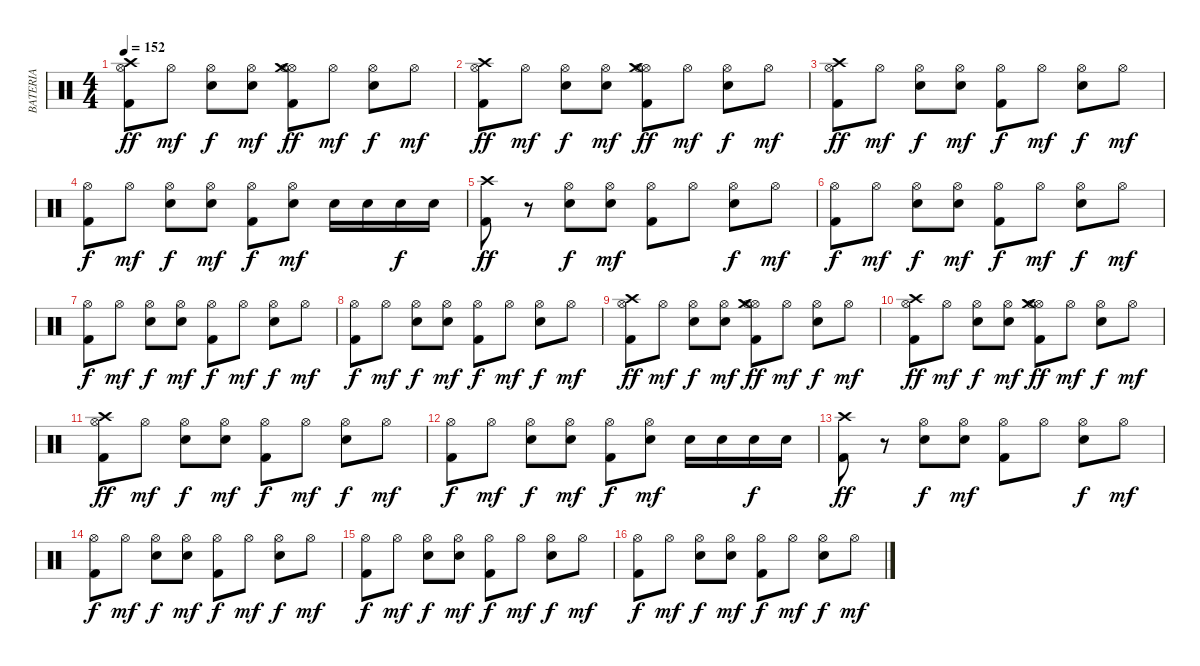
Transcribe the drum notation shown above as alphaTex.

\track ("BATERIA" "BATERIA") {instrument percussion}
\staff {score}
\articulation defaults
\ts (4 4)
\tempo 152
\clef neutral
\ks c
("Kick (hit) 2" "Crash high (hit)" "Hi-Hat (open)").8{dy ff} "Hi-Hat (open)".8{dy mf} ("Snare (hit) 2" "Hi-Hat (open)").8{dy f} ("Snare (hit) 2" "Hi-Hat (open)").8{dy mf} ("Kick (hit) 2" "Hi-Hat (open)" "Hi-Hat (open)" "Crash medium (hit)").8{dy ff} "Hi-Hat (open)".8{dy mf} ("Snare (hit) 2" "Hi-Hat (open)").8{dy f} "Hi-Hat (open)".8{dy mf} |
("Kick (hit) 2" "Crash high (hit)" "Hi-Hat (open)").8{dy ff} "Hi-Hat (open)".8{dy mf} ("Snare (hit) 2" "Hi-Hat (open)").8{dy f} ("Snare (hit) 2" "Hi-Hat (open)").8{dy mf} ("Kick (hit) 2" "Hi-Hat (open)" "Hi-Hat (open)" "Crash medium (hit)").8{dy ff} "Hi-Hat (open)".8{dy mf} ("Snare (hit) 2" "Hi-Hat (open)").8{dy f} "Hi-Hat (open)".8{dy mf} |
("Kick (hit) 2" "Crash high (hit)" "Hi-Hat (open)").8{dy ff} "Hi-Hat (open)".8{dy mf} ("Snare (hit) 2" "Hi-Hat (open)").8{dy f} ("Snare (hit) 2" "Hi-Hat (open)").8{dy mf} ("Kick (hit) 2" "Hi-Hat (open)").8{dy f} "Hi-Hat (open)".8{dy mf} ("Snare (hit) 2" "Hi-Hat (open)").8{dy f} "Hi-Hat (open)".8{dy mf} |
("Hi-Hat (open)" "Kick (hit) 2").8{dy f} "Hi-Hat (open)".8{dy mf} ("Snare (hit) 2" "Hi-Hat (open)").8{dy f} ("Snare (hit) 2" "Hi-Hat (open)").8{dy mf} ("Kick (hit) 2" "Hi-Hat (open)").8{dy f} ("Snare (hit) 2" "Hi-Hat (open)").8{dy mf} "Snare (hit) 2".16 "Snare (hit) 2".16 "Snare (hit) 2".16{dy f} "Snare (hit) 2".16 |
("Kick (hit) 2" "Crash high (hit)").8{dy ff} r.8 ("Snare (hit) 2" "Hi-Hat (open)").8{dy f} ("Snare (hit) 2" "Hi-Hat (open)").8{dy mf} ("Kick (hit) 2" "Hi-Hat (open)").8 "Hi-Hat (open)".8 ("Snare (hit) 2" "Hi-Hat (open)").8{dy f} "Hi-Hat (open)".8{dy mf} |
("Hi-Hat (open)" "Kick (hit) 2").8{dy f} "Hi-Hat (open)".8{dy mf} ("Hi-Hat (open)" "Snare (hit) 2").8{dy f} ("Hi-Hat (open)" "Snare (hit) 2").8{dy mf} ("Hi-Hat (open)" "Kick (hit) 2").8{dy f} "Hi-Hat (open)".8{dy mf} ("Hi-Hat (open)" "Snare (hit) 2").8{dy f} "Hi-Hat (open)".8{dy mf} |
("Hi-Hat (open)" "Kick (hit) 2").8{dy f} "Hi-Hat (open)".8{dy mf} ("Hi-Hat (open)" "Snare (hit) 2").8{dy f} ("Hi-Hat (open)" "Snare (hit) 2").8{dy mf} ("Hi-Hat (open)" "Kick (hit) 2").8{dy f} "Hi-Hat (open)".8{dy mf} ("Hi-Hat (open)" "Snare (hit) 2").8{dy f} "Hi-Hat (open)".8{dy mf} |
("Hi-Hat (open)" "Kick (hit) 2").8{dy f} "Hi-Hat (open)".8{dy mf} ("Snare (hit) 2" "Hi-Hat (open)").8{dy f} ("Snare (hit) 2" "Hi-Hat (open)").8{dy mf} ("Hi-Hat (open)" "Kick (hit) 2").8{dy f} "Hi-Hat (open)".8{dy mf} ("Hi-Hat (open)" "Snare (hit) 2").8{dy f} "Hi-Hat (open)".8{dy mf} |
("Kick (hit) 2" "Crash high (hit)" "Hi-Hat (open)").8{dy ff} "Hi-Hat (open)".8{dy mf} ("Snare (hit) 2" "Hi-Hat (open)").8{dy f} ("Snare (hit) 2" "Hi-Hat (open)").8{dy mf} ("Kick (hit) 2" "Hi-Hat (open)" "Hi-Hat (open)" "Crash medium (hit)").8{dy ff} "Hi-Hat (open)".8{dy mf} ("Snare (hit) 2" "Hi-Hat (open)").8{dy f} "Hi-Hat (open)".8{dy mf} |
("Kick (hit) 2" "Crash high (hit)" "Hi-Hat (open)").8{dy ff} "Hi-Hat (open)".8{dy mf} ("Snare (hit) 2" "Hi-Hat (open)").8{dy f} ("Snare (hit) 2" "Hi-Hat (open)").8{dy mf} ("Kick (hit) 2" "Hi-Hat (open)" "Hi-Hat (open)" "Crash medium (hit)").8{dy ff} "Hi-Hat (open)".8{dy mf} ("Snare (hit) 2" "Hi-Hat (open)").8{dy f} "Hi-Hat (open)".8{dy mf} |
("Kick (hit) 2" "Crash high (hit)" "Hi-Hat (open)").8{dy ff} "Hi-Hat (open)".8{dy mf} ("Snare (hit) 2" "Hi-Hat (open)").8{dy f} ("Snare (hit) 2" "Hi-Hat (open)").8{dy mf} ("Kick (hit) 2" "Hi-Hat (open)").8{dy f} "Hi-Hat (open)".8{dy mf} ("Snare (hit) 2" "Hi-Hat (open)").8{dy f} "Hi-Hat (open)".8{dy mf} |
("Hi-Hat (open)" "Kick (hit) 2").8{dy f} "Hi-Hat (open)".8{dy mf} ("Snare (hit) 2" "Hi-Hat (open)").8{dy f} ("Snare (hit) 2" "Hi-Hat (open)").8{dy mf} ("Kick (hit) 2" "Hi-Hat (open)").8{dy f} ("Snare (hit) 2" "Hi-Hat (open)").8{dy mf} "Snare (hit) 2".16 "Snare (hit) 2".16 "Snare (hit) 2".16{dy f} "Snare (hit) 2".16 |
("Kick (hit) 2" "Crash high (hit)").8{dy ff} r.8 ("Snare (hit) 2" "Hi-Hat (open)").8{dy f} ("Snare (hit) 2" "Hi-Hat (open)").8{dy mf} ("Kick (hit) 2" "Hi-Hat (open)").8 "Hi-Hat (open)".8 ("Snare (hit) 2" "Hi-Hat (open)").8{dy f} "Hi-Hat (open)".8{dy mf} |
("Hi-Hat (open)" "Kick (hit) 2").8{dy f} "Hi-Hat (open)".8{dy mf} ("Hi-Hat (open)" "Snare (hit) 2").8{dy f} ("Hi-Hat (open)" "Snare (hit) 2").8{dy mf} ("Hi-Hat (open)" "Kick (hit) 2").8{dy f} "Hi-Hat (open)".8{dy mf} ("Hi-Hat (open)" "Snare (hit) 2").8{dy f} "Hi-Hat (open)".8{dy mf} |
("Hi-Hat (open)" "Kick (hit) 2").8{dy f} "Hi-Hat (open)".8{dy mf} ("Hi-Hat (open)" "Snare (hit) 2").8{dy f} ("Hi-Hat (open)" "Snare (hit) 2").8{dy mf} ("Hi-Hat (open)" "Kick (hit) 2").8{dy f} "Hi-Hat (open)".8{dy mf} ("Hi-Hat (open)" "Snare (hit) 2").8{dy f} "Hi-Hat (open)".8{dy mf} |
("Hi-Hat (open)" "Kick (hit) 2").8{dy f} "Hi-Hat (open)".8{dy mf} ("Snare (hit) 2" "Hi-Hat (open)").8{dy f} ("Snare (hit) 2" "Hi-Hat (open)").8{dy mf} ("Hi-Hat (open)" "Kick (hit) 2").8{dy f} "Hi-Hat (open)".8{dy mf} ("Hi-Hat (open)" "Snare (hit) 2").8{dy f} "Hi-Hat (open)".8{dy mf}
